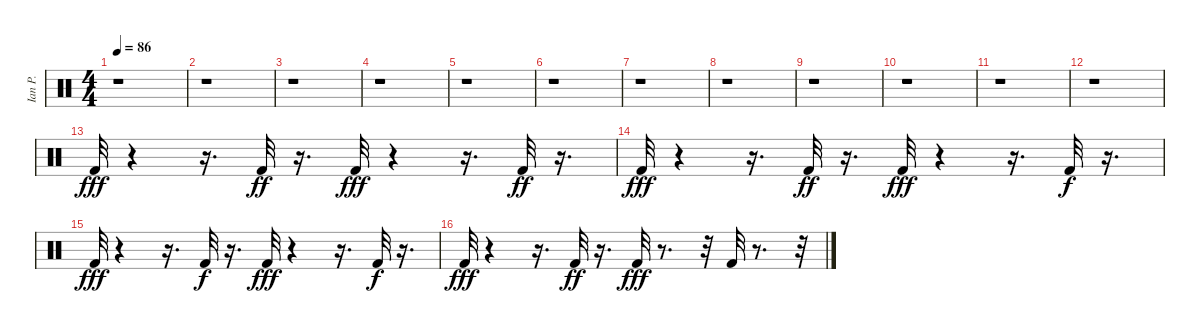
\track ("Ian P." "Ian P.") {instrument percussion}
\staff {score}
\articulation defaults
\ts (4 4)
\tempo 86
\clef neutral
\ks c
r.1{dy fff} |
r.1 |
r.1 |
r.1 |
r.1 |
r.1 |
r.1 |
r.1 |
r.1 |
r.1 |
r.1 |
r.1 |
"Kick (hit) 2".32 r.4 r.16{d} "Kick (hit) 2".32{dy ff} r.16{d} "Kick (hit) 2".32{dy fff} r.4 r.16{d} "Kick (hit) 2".32{dy ff} r.16{d} |
"Kick (hit) 2".32{dy fff} r.4 r.16{d} "Kick (hit) 2".32{dy ff} r.16{d} "Kick (hit) 2".32{dy fff} r.4 r.16{d} "Kick (hit) 2".32{dy f} r.16{d} |
"Kick (hit) 2".32{dy fff} r.4 r.16{d} "Kick (hit) 2".32{dy f} r.16{d} "Kick (hit) 2".32{dy fff} r.4 r.16{d} "Kick (hit) 2".32{dy f} r.16{d} |
"Kick (hit) 2".32{dy fff} r.4 r.16{d} "Kick (hit) 2".32{dy ff} r.16{d} "Kick (hit) 2".32{dy fff} r.8{d} r.32 "Kick (hit) 2".32 r.8{d} r.32
